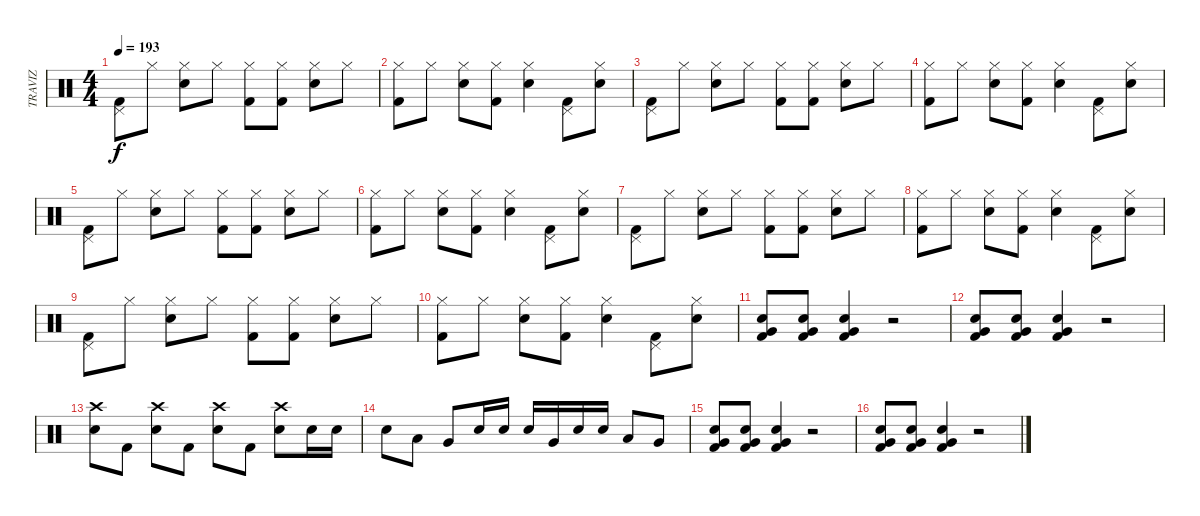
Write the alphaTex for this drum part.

\track ("TRAVIZ" "TRAVIZ") {instrument percussion}
\staff {score}
\articulation defaults
\ts (4 4)
\tempo 193
\clef neutral
\ks c
("Kick (hit) 2" "Pedal Hi-Hat (hit)").8{dy f} "Hi-Hat (closed)".8 ("Hi-Hat (closed)" "Snare (hit) 2").8 "Hi-Hat (closed)".8 ("Hi-Hat (closed)" "Kick (hit) 2").8 ("Hi-Hat (closed)" "Kick (hit) 2").8 ("Hi-Hat (closed)" "Snare (hit) 2").8 "Hi-Hat (closed)".8 |
("Hi-Hat (closed)" "Kick (hit) 2").8 "Hi-Hat (closed)".8 ("Hi-Hat (closed)" "Snare (hit) 2").8 ("Hi-Hat (closed)" "Kick (hit) 2").8 ("Hi-Hat (closed)" "Snare (hit) 2").4 ("Kick (hit) 2" "Pedal Hi-Hat (hit)").8 ("Hi-Hat (closed)" "Snare (hit) 2").8 |
("Kick (hit) 2" "Pedal Hi-Hat (hit)").8 "Hi-Hat (closed)".8 ("Hi-Hat (closed)" "Snare (hit) 2").8 "Hi-Hat (closed)".8 ("Hi-Hat (closed)" "Kick (hit) 2").8 ("Hi-Hat (closed)" "Kick (hit) 2").8 ("Hi-Hat (closed)" "Snare (hit) 2").8 "Hi-Hat (closed)".8 |
("Hi-Hat (closed)" "Kick (hit) 2").8 "Hi-Hat (closed)".8 ("Hi-Hat (closed)" "Snare (hit) 2").8 ("Hi-Hat (closed)" "Kick (hit) 2").8 ("Hi-Hat (closed)" "Snare (hit) 2").4 ("Kick (hit) 2" "Pedal Hi-Hat (hit)").8 ("Hi-Hat (closed)" "Snare (hit) 2").8 |
("Kick (hit) 2" "Pedal Hi-Hat (hit)").8 "Hi-Hat (closed)".8 ("Hi-Hat (closed)" "Snare (hit) 2").8 "Hi-Hat (closed)".8 ("Hi-Hat (closed)" "Kick (hit) 2").8 ("Hi-Hat (closed)" "Kick (hit) 2").8 ("Hi-Hat (closed)" "Snare (hit) 2").8 "Hi-Hat (closed)".8 |
("Hi-Hat (closed)" "Kick (hit) 2").8 "Hi-Hat (closed)".8 ("Hi-Hat (closed)" "Snare (hit) 2").8 ("Hi-Hat (closed)" "Kick (hit) 2").8 ("Hi-Hat (closed)" "Snare (hit) 2").4 ("Kick (hit) 2" "Pedal Hi-Hat (hit)").8 ("Hi-Hat (closed)" "Snare (hit) 2").8 |
("Kick (hit) 2" "Pedal Hi-Hat (hit)").8 "Hi-Hat (closed)".8 ("Hi-Hat (closed)" "Snare (hit) 2").8 "Hi-Hat (closed)".8 ("Hi-Hat (closed)" "Kick (hit) 2").8 ("Hi-Hat (closed)" "Kick (hit) 2").8 ("Hi-Hat (closed)" "Snare (hit) 2").8 "Hi-Hat (closed)".8 |
("Hi-Hat (closed)" "Kick (hit) 2").8 "Hi-Hat (closed)".8 ("Hi-Hat (closed)" "Snare (hit) 2").8 ("Hi-Hat (closed)" "Kick (hit) 2").8 ("Hi-Hat (closed)" "Snare (hit) 2").4 ("Kick (hit) 2" "Pedal Hi-Hat (hit)").8 ("Hi-Hat (closed)" "Snare (hit) 2").8 |
("Kick (hit) 2" "Pedal Hi-Hat (hit)").8 "Hi-Hat (closed)".8 ("Hi-Hat (closed)" "Snare (hit) 2").8 "Hi-Hat (closed)".8 ("Hi-Hat (closed)" "Kick (hit) 2").8 ("Hi-Hat (closed)" "Kick (hit) 2").8 ("Hi-Hat (closed)" "Snare (hit) 2").8 "Hi-Hat (closed)".8 |
("Hi-Hat (closed)" "Kick (hit) 2").8 "Hi-Hat (closed)".8 ("Hi-Hat (closed)" "Snare (hit) 2").8 ("Hi-Hat (closed)" "Kick (hit) 2").8 ("Hi-Hat (closed)" "Snare (hit) 2").4 ("Kick (hit) 2" "Pedal Hi-Hat (hit)").8 ("Hi-Hat (closed)" "Snare (hit) 2").8 |
("Snare (hit) 2" "Very Low Tom (hit)" "Kick (hit) 2").8 ("Snare (hit) 2" "Very Low Tom (hit)" "Kick (hit) 2").8 ("Snare (hit) 2" "Very Low Tom (hit)" "Kick (hit) 2").4 r.2 |
("Snare (hit) 2" "Very Low Tom (hit)" "Kick (hit) 2").8 ("Snare (hit) 2" "Very Low Tom (hit)" "Kick (hit) 2").8 ("Snare (hit) 2" "Very Low Tom (hit)" "Kick (hit) 2").4 r.2 |
("Crash high (hit)" "Snare (hit) 2").8 "Kick (hit) 2".8 ("Crash high (hit)" "Snare (hit) 2").8 "Kick (hit) 2".8 ("Crash high (hit)" "Snare (hit) 2").8 "Kick (hit) 2".8 ("Crash high (hit)" "Snare (hit) 2").8 "Snare (hit) 2".16 "Snare (hit) 2".16 |
"Snare (hit) 2".8 "Low Tom (hit)".8 "Very Low Tom (hit)".8 "Snare (hit) 2".16 "Snare (hit) 2".16 "Snare (hit) 2".16 "Very Low Tom (hit)".16 "Snare (hit) 2".16 "Snare (hit) 2".16 "Low Tom (hit)".8 "Very Low Tom (hit)".8 |
("Snare (hit) 2" "Very Low Tom (hit)" "Kick (hit) 2").8 ("Snare (hit) 2" "Very Low Tom (hit)" "Kick (hit) 2").8 ("Snare (hit) 2" "Very Low Tom (hit)" "Kick (hit) 2").4 r.2 |
("Snare (hit) 2" "Very Low Tom (hit)" "Kick (hit) 2").8 ("Snare (hit) 2" "Very Low Tom (hit)" "Kick (hit) 2").8 ("Snare (hit) 2" "Very Low Tom (hit)" "Kick (hit) 2").4 r.2
